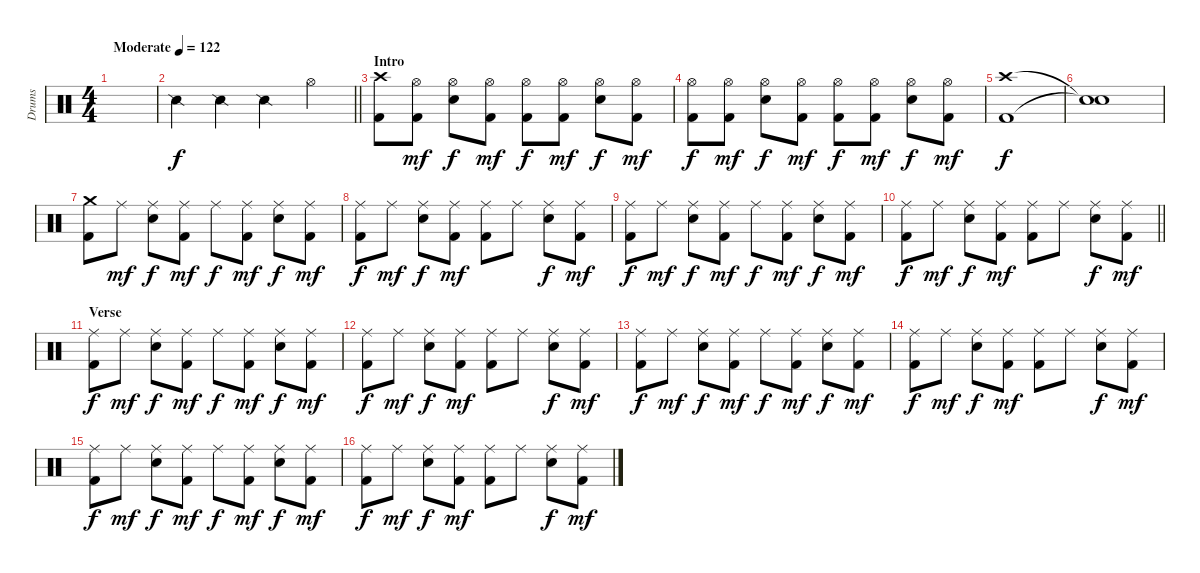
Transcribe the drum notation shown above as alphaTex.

\track ("Drums" "Drums") {instrument percussion}
\staff {score}
\articulation defaults
\ts (4 4)
\tempo (122 "Moderate")
\clef neutral
\ks c
|
\barLineRight lightlight "Snare (side stick) 2".4{volume 16 balance 8} "Snare (side stick) 2".4 "Snare (side stick) 2".4 "Hi-Hat (open)".4
|
\section ("" "Intro")
("Crash high (hit)" "Kick (hit) 2").8 ("Hi-Hat (open)" "Kick (hit) 2").8{dy mf} ("Hi-Hat (open)" "Snare (hit) 2").8{dy f} ("Hi-Hat (open)" "Kick (hit) 2").8{dy mf} ("Hi-Hat (open)" "Kick (hit) 2").8{dy f} ("Hi-Hat (open)" "Kick (hit) 2").8{dy mf} ("Hi-Hat (open)" "Snare (hit) 2").8{dy f} ("Hi-Hat (open)" "Kick (hit) 2").8{dy mf} |
("Hi-Hat (open)" "Kick (hit) 2").8{dy f} ("Hi-Hat (open)" "Kick (hit) 2").8{dy mf} ("Hi-Hat (open)" "Snare (hit) 2").8{dy f} ("Hi-Hat (open)" "Kick (hit) 2").8{dy mf} ("Hi-Hat (open)" "Kick (hit) 2").8{dy f} ("Hi-Hat (open)" "Kick (hit) 2").8{dy mf} ("Hi-Hat (open)" "Snare (hit) 2").8{dy f} ("Hi-Hat (open)" "Kick (hit) 2").8{dy mf} |
("Crash high (hit)" "Kick (hit) 2").1{dy f} |
("Snare (hit)"{t} "Snare (hit)"{t}).1 |
("Crash medium (hit)" "Kick (hit) 2").8 "Ride (middle)".8{dy mf} ("Ride (middle)" "Snare (hit) 2").8{dy f} ("Ride (middle)" "Kick (hit) 2").8{dy mf} "Ride (middle)".8{dy f} ("Ride (middle)" "Kick (hit) 2").8{dy mf} ("Ride (middle)" "Snare (hit) 2").8{dy f} ("Ride (middle)" "Kick (hit) 2").8{dy mf} |
("Ride (middle)" "Kick (hit) 2").8{dy f} "Ride (middle)".8{dy mf} ("Ride (middle)" "Snare (hit) 2").8{dy f} ("Ride (middle)" "Kick (hit) 2").8{dy mf} ("Ride (middle)" "Kick (hit) 2").8 "Ride (middle)".8 ("Ride (middle)" "Snare (hit) 2").8{dy f} ("Ride (middle)" "Kick (hit) 2").8{dy mf} |
("Ride (middle)" "Kick (hit) 2").8{dy f} "Ride (middle)".8{dy mf} ("Ride (middle)" "Snare (hit) 2").8{dy f} ("Ride (middle)" "Kick (hit) 2").8{dy mf} "Ride (middle)".8{dy f} ("Ride (middle)" "Kick (hit) 2").8{dy mf} ("Ride (middle)" "Snare (hit) 2").8{dy f} ("Ride (middle)" "Kick (hit) 2").8{dy mf} |
\barLineRight lightlight
("Ride (middle)" "Kick (hit) 2").8{dy f} "Ride (middle)".8{dy mf} ("Ride (middle)" "Snare (hit) 2").8{dy f} ("Ride (middle)" "Kick (hit) 2").8{dy mf} ("Ride (middle)" "Kick (hit) 2").8 "Ride (middle)".8 ("Ride (middle)" "Snare (hit) 2").8{dy f} ("Ride (middle)" "Kick (hit) 2").8{dy mf} |
\section ("" "Verse")
("Ride (middle)" "Kick (hit) 2").8{dy f} "Ride (middle)".8{dy mf} ("Ride (middle)" "Snare (hit) 2").8{dy f} ("Ride (middle)" "Kick (hit) 2").8{dy mf} "Ride (middle)".8{dy f} ("Ride (middle)" "Kick (hit) 2").8{dy mf} ("Ride (middle)" "Snare (hit) 2").8{dy f} ("Ride (middle)" "Kick (hit) 2").8{dy mf} |
("Ride (middle)" "Kick (hit) 2").8{dy f} "Ride (middle)".8{dy mf} ("Ride (middle)" "Snare (hit) 2").8{dy f} ("Ride (middle)" "Kick (hit) 2").8{dy mf} ("Ride (middle)" "Kick (hit) 2").8 "Ride (middle)".8 ("Ride (middle)" "Snare (hit) 2").8{dy f} ("Ride (middle)" "Kick (hit) 2").8{dy mf} |
("Ride (middle)" "Kick (hit) 2").8{dy f} "Ride (middle)".8{dy mf} ("Ride (middle)" "Snare (hit) 2").8{dy f} ("Ride (middle)" "Kick (hit) 2").8{dy mf} "Ride (middle)".8{dy f} ("Ride (middle)" "Kick (hit) 2").8{dy mf} ("Ride (middle)" "Snare (hit) 2").8{dy f} ("Ride (middle)" "Kick (hit) 2").8{dy mf} |
("Ride (middle)" "Kick (hit) 2").8{dy f} "Ride (middle)".8{dy mf} ("Ride (middle)" "Snare (hit) 2").8{dy f} ("Ride (middle)" "Kick (hit) 2").8{dy mf} ("Ride (middle)" "Kick (hit) 2").8 "Ride (middle)".8 ("Ride (middle)" "Snare (hit) 2").8{dy f} ("Ride (middle)" "Kick (hit) 2").8{dy mf} |
("Ride (middle)" "Kick (hit) 2").8{dy f} "Ride (middle)".8{dy mf} ("Ride (middle)" "Snare (hit) 2").8{dy f} ("Ride (middle)" "Kick (hit) 2").8{dy mf} "Ride (middle)".8{dy f} ("Ride (middle)" "Kick (hit) 2").8{dy mf} ("Ride (middle)" "Snare (hit) 2").8{dy f} ("Ride (middle)" "Kick (hit) 2").8{dy mf} |
("Ride (middle)" "Kick (hit) 2").8{dy f} "Ride (middle)".8{dy mf} ("Ride (middle)" "Snare (hit) 2").8{dy f} ("Ride (middle)" "Kick (hit) 2").8{dy mf} ("Ride (middle)" "Kick (hit) 2").8 "Ride (middle)".8 ("Ride (middle)" "Snare (hit) 2").8{dy f} ("Ride (middle)" "Kick (hit) 2").8{dy mf}
